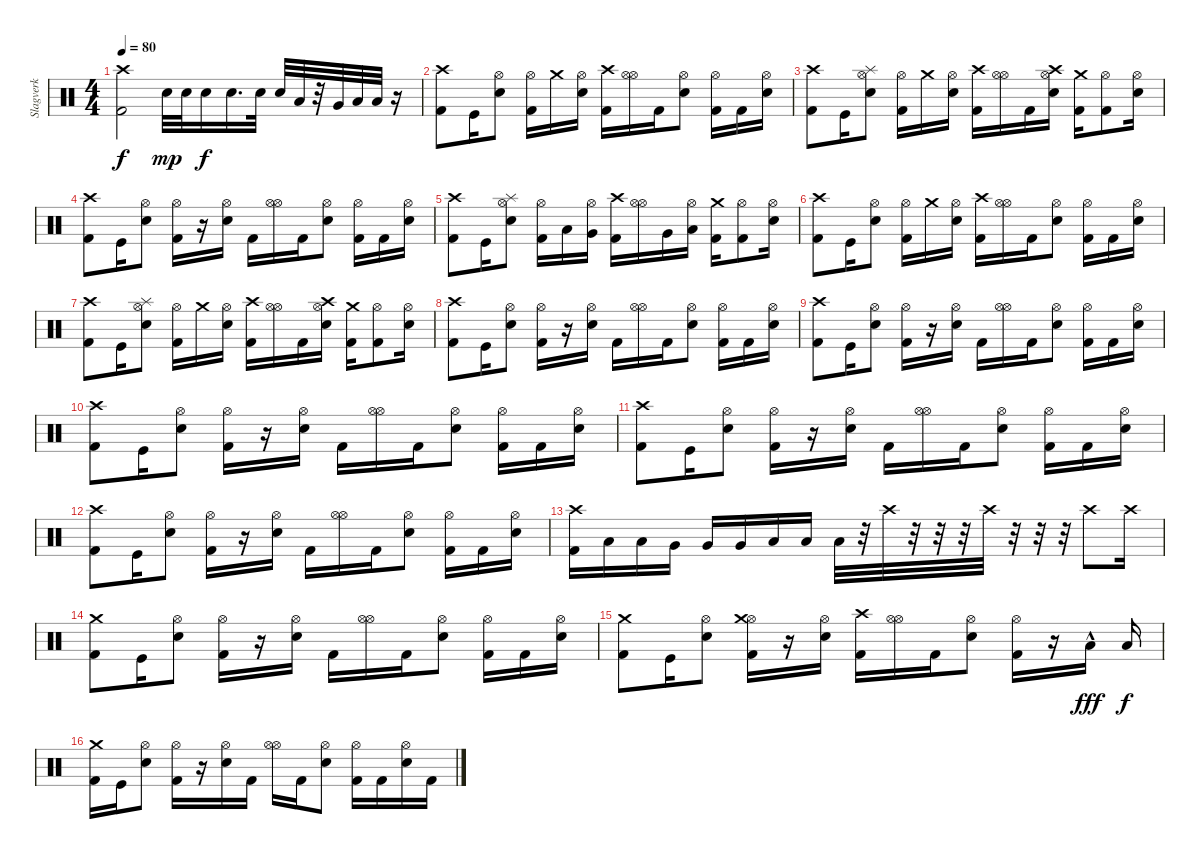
\track ("Slagverk" "Slagverk") {instrument percussion}
\staff
\articulation defaults
\ts (4 4)
\tempo 80
\clef neutral
\ks c
("Kick (hit) 2" "Crash high (hit)").2{dy f} "Snare (hit) 2".32{dy mp} "Snare (hit) 2".32 "Snare (hit) 2".16{dy f} "Snare (hit) 2".16{d} "Snare (hit) 2".32 "Snare (hit) 2".32 "Low Tom (hit)".32 r.32 "Very Low Tom (hit)".32 "Low Floor Tom (hit)".32 "Low Floor Tom (hit)".32 r.16 |
("Crash high (hit)" "Kick (hit) 2").8 "Kick (hit)".16 ("Hi-Hat (open)" "Snare (hit) 2").8 ("Hi-Hat (open)" "Kick (hit) 2").16 "Crash medium (hit)".16 ("Hi-Hat (open)" "Snare (hit) 2").16 ("Kick (hit) 2" "Crash high (hit)").16 ("Hi-Hat (open)" "Hi-Hat (open)").16 "Kick (hit) 2".16 ("Hi-Hat (open)" "Snare (hit) 2").8 ("Hi-Hat (open)" "Kick (hit) 2").16 "Kick (hit) 2".16 ("Hi-Hat (open)" "Snare (hit) 2").16 |
("Crash high (hit)" "Kick (hit) 2").8 "Kick (hit)".16 ("Hi-Hat (open)" "Snare (hit) 2" "Splash (hit)").8 ("Hi-Hat (open)" "Kick (hit) 2").16 "Crash medium (hit)".16 ("Hi-Hat (open)" "Snare (hit) 2").16 ("Kick (hit) 2" "Crash high (hit)").16 ("Hi-Hat (open)" "Hi-Hat (open)").16 "Kick (hit) 2".16 ("Hi-Hat (open)" "Snare (hit) 2" "Crash high (hit)").16 ("Kick (hit) 2" "Crash medium (hit)").16 ("Hi-Hat (open)" "Kick (hit) 2").8 ("Hi-Hat (open)" "Snare (hit) 2").16 |
("Crash high (hit)" "Kick (hit) 2").8 "Kick (hit)".16 ("Hi-Hat (open)" "Snare (hit) 2").8 ("Hi-Hat (open)" "Kick (hit) 2").16 r.16 ("Hi-Hat (open)" "Snare (hit) 2").16 "Kick (hit) 2".16 ("Hi-Hat (open)" "Hi-Hat (open)").16 "Kick (hit) 2".16 ("Hi-Hat (open)" "Snare (hit) 2").8 ("Hi-Hat (open)" "Kick (hit) 2").16 "Kick (hit) 2".16 ("Hi-Hat (open)" "Snare (hit) 2").16 |
("Crash high (hit)" "Kick (hit) 2").8 "Kick (hit)".16 ("Hi-Hat (open)" "Snare (hit) 2" "Splash (hit)").8 ("Hi-Hat (open)" "Kick (hit) 2").16 "Low Tom (hit)".16 ("Hi-Hat (open)" "Very Low Tom (hit)").16 ("Kick (hit) 2" "Crash high (hit)").16 ("Hi-Hat (open)" "Hi-Hat (open)").16 "Very Low Tom (hit)".16 ("Hi-Hat (open)" "Low Floor Tom (hit)").16 ("Kick (hit) 2" "Crash medium (hit)").16 ("Hi-Hat (open)" "Kick (hit) 2").8 ("Hi-Hat (open)" "Snare (hit) 2").16 |
("Crash high (hit)" "Kick (hit) 2").8 "Kick (hit)".16 ("Hi-Hat (open)" "Snare (hit) 2").8 ("Hi-Hat (open)" "Kick (hit) 2").16 "Crash medium (hit)".16 ("Hi-Hat (open)" "Snare (hit) 2").16 ("Kick (hit) 2" "Crash high (hit)").16 ("Hi-Hat (open)" "Hi-Hat (open)").16 "Kick (hit) 2".16 ("Hi-Hat (open)" "Snare (hit) 2").8 ("Hi-Hat (open)" "Kick (hit) 2").16 "Kick (hit) 2".16 ("Hi-Hat (open)" "Snare (hit) 2").16 |
("Crash high (hit)" "Kick (hit) 2").8 "Kick (hit)".16 ("Hi-Hat (open)" "Snare (hit) 2" "Splash (hit)").8 ("Hi-Hat (open)" "Kick (hit) 2").16 "Crash medium (hit)".16 ("Hi-Hat (open)" "Snare (hit) 2").16 ("Kick (hit) 2" "Crash high (hit)").16 ("Hi-Hat (open)" "Hi-Hat (open)").16 "Kick (hit) 2".16 ("Hi-Hat (open)" "Snare (hit) 2" "Crash high (hit)").16 ("Kick (hit) 2" "Crash medium (hit)").16 ("Hi-Hat (open)" "Kick (hit) 2").8 ("Hi-Hat (open)" "Snare (hit) 2").16 |
("Crash high (hit)" "Kick (hit) 2").8 "Kick (hit)".16 ("Hi-Hat (open)" "Snare (hit) 2").8 ("Hi-Hat (open)" "Kick (hit) 2").16 r.16 ("Hi-Hat (open)" "Snare (hit) 2").16 "Kick (hit) 2".16 ("Hi-Hat (open)" "Hi-Hat (open)").16 "Kick (hit) 2".16 ("Hi-Hat (open)" "Snare (hit) 2").8 ("Hi-Hat (open)" "Kick (hit) 2").16 "Kick (hit) 2".16 ("Hi-Hat (open)" "Snare (hit) 2").16 |
("Crash high (hit)" "Kick (hit) 2").8 "Kick (hit)".16 ("Hi-Hat (open)" "Snare (hit) 2").8 ("Hi-Hat (open)" "Kick (hit) 2").16 r.16 ("Hi-Hat (open)" "Snare (hit) 2").16 "Kick (hit) 2".16 ("Hi-Hat (open)" "Hi-Hat (open)").16 "Kick (hit) 2".16 ("Hi-Hat (open)" "Snare (hit) 2").8 ("Hi-Hat (open)" "Kick (hit) 2").16 "Kick (hit) 2".16 ("Hi-Hat (open)" "Snare (hit) 2").16 |
("Crash high (hit)" "Kick (hit) 2").8 "Kick (hit)".16 ("Hi-Hat (open)" "Snare (hit) 2").8 ("Hi-Hat (open)" "Kick (hit) 2").16 r.16 ("Hi-Hat (open)" "Snare (hit) 2").16 "Kick (hit) 2".16 ("Hi-Hat (open)" "Hi-Hat (open)").16 "Kick (hit) 2".16 ("Hi-Hat (open)" "Snare (hit) 2").8 ("Hi-Hat (open)" "Kick (hit) 2").16 "Kick (hit) 2".16 ("Hi-Hat (open)" "Snare (hit) 2").16 |
("Crash high (hit)" "Kick (hit) 2").8 "Kick (hit)".16 ("Hi-Hat (open)" "Snare (hit) 2").8 ("Hi-Hat (open)" "Kick (hit) 2").16 r.16 ("Hi-Hat (open)" "Snare (hit) 2").16 "Kick (hit) 2".16 ("Hi-Hat (open)" "Hi-Hat (open)").16 "Kick (hit) 2".16 ("Hi-Hat (open)" "Snare (hit) 2").8 ("Hi-Hat (open)" "Kick (hit) 2").16 "Kick (hit) 2".16 ("Hi-Hat (open)" "Snare (hit) 2").16 |
("Crash high (hit)" "Kick (hit) 2").8 "Kick (hit)".16 ("Hi-Hat (open)" "Snare (hit) 2").8 ("Hi-Hat (open)" "Kick (hit) 2").16 r.16 ("Hi-Hat (open)" "Snare (hit) 2").16 "Kick (hit) 2".16 ("Hi-Hat (open)" "Hi-Hat (open)").16 "Kick (hit) 2".16 ("Hi-Hat (open)" "Snare (hit) 2").8 ("Hi-Hat (open)" "Kick (hit) 2").16 "Kick (hit) 2".16 ("Hi-Hat (open)" "Snare (hit) 2").16 |
("Crash high (hit)" "Kick (hit) 2").16 "Low Tom (hit)".16 "Low Tom (hit)".16 "Very Low Tom (hit)".16 "Very Low Tom (hit)".16 "Very Low Tom (hit)".16 "Low Floor Tom (hit)".16 "Low Floor Tom (hit)".16 "Low Floor Tom (hit)".32 r.32 "Crash high (hit)".32 r.32 r.32 r.32 "Crash high (hit)".32 r.32 r.32 r.32 "Crash high (hit)".8 "Crash high (hit)".16 |
("Crash medium (hit)" "Kick (hit) 2").8 "Kick (hit)".16 ("Hi-Hat (open)" "Snare (hit) 2").8 ("Hi-Hat (open)" "Kick (hit) 2").16 r.16 ("Hi-Hat (open)" "Snare (hit) 2").16 "Kick (hit) 2".16 ("Hi-Hat (open)" "Hi-Hat (open)").16 "Kick (hit) 2".16 ("Hi-Hat (open)" "Snare (hit) 2").8 ("Hi-Hat (open)" "Kick (hit) 2").16 "Kick (hit) 2".16 ("Hi-Hat (open)" "Snare (hit) 2").16 |
("Crash medium (hit)" "Kick (hit) 2").8 "Kick (hit)".16 ("Hi-Hat (open)" "Snare (hit) 2").8 ("Hi-Hat (open)" "Kick (hit) 2" "Crash medium (hit)").16 r.16 ("Hi-Hat (open)" "Snare (hit) 2").16 ("Kick (hit) 2" "Crash high (hit)").16 ("Hi-Hat (open)" "Hi-Hat (open)").16 "Kick (hit) 2".16 ("Hi-Hat (open)" "Snare (hit) 2").8 ("Hi-Hat (open)" "Kick (hit) 2").16 r.16 "Low Floor Tom (hit)"{hac}.16{dy fff} "Low Floor Tom (hit)".16{dy f} |
("Crash medium (hit)" "Kick (hit) 2").16 "Kick (hit)".16 ("Hi-Hat (open)" "Snare (hit) 2").8 ("Hi-Hat (open)" "Kick (hit) 2").16 r.16 ("Hi-Hat (open)" "Snare (hit) 2").16 "Kick (hit) 2".16 ("Hi-Hat (open)" "Hi-Hat (open)").16 "Kick (hit) 2".16 ("Hi-Hat (open)" "Snare (hit) 2").8 ("Hi-Hat (open)" "Kick (hit) 2").16 "Kick (hit) 2".16 ("Hi-Hat (open)" "Snare (hit) 2").16 "Kick (hit) 2".16
